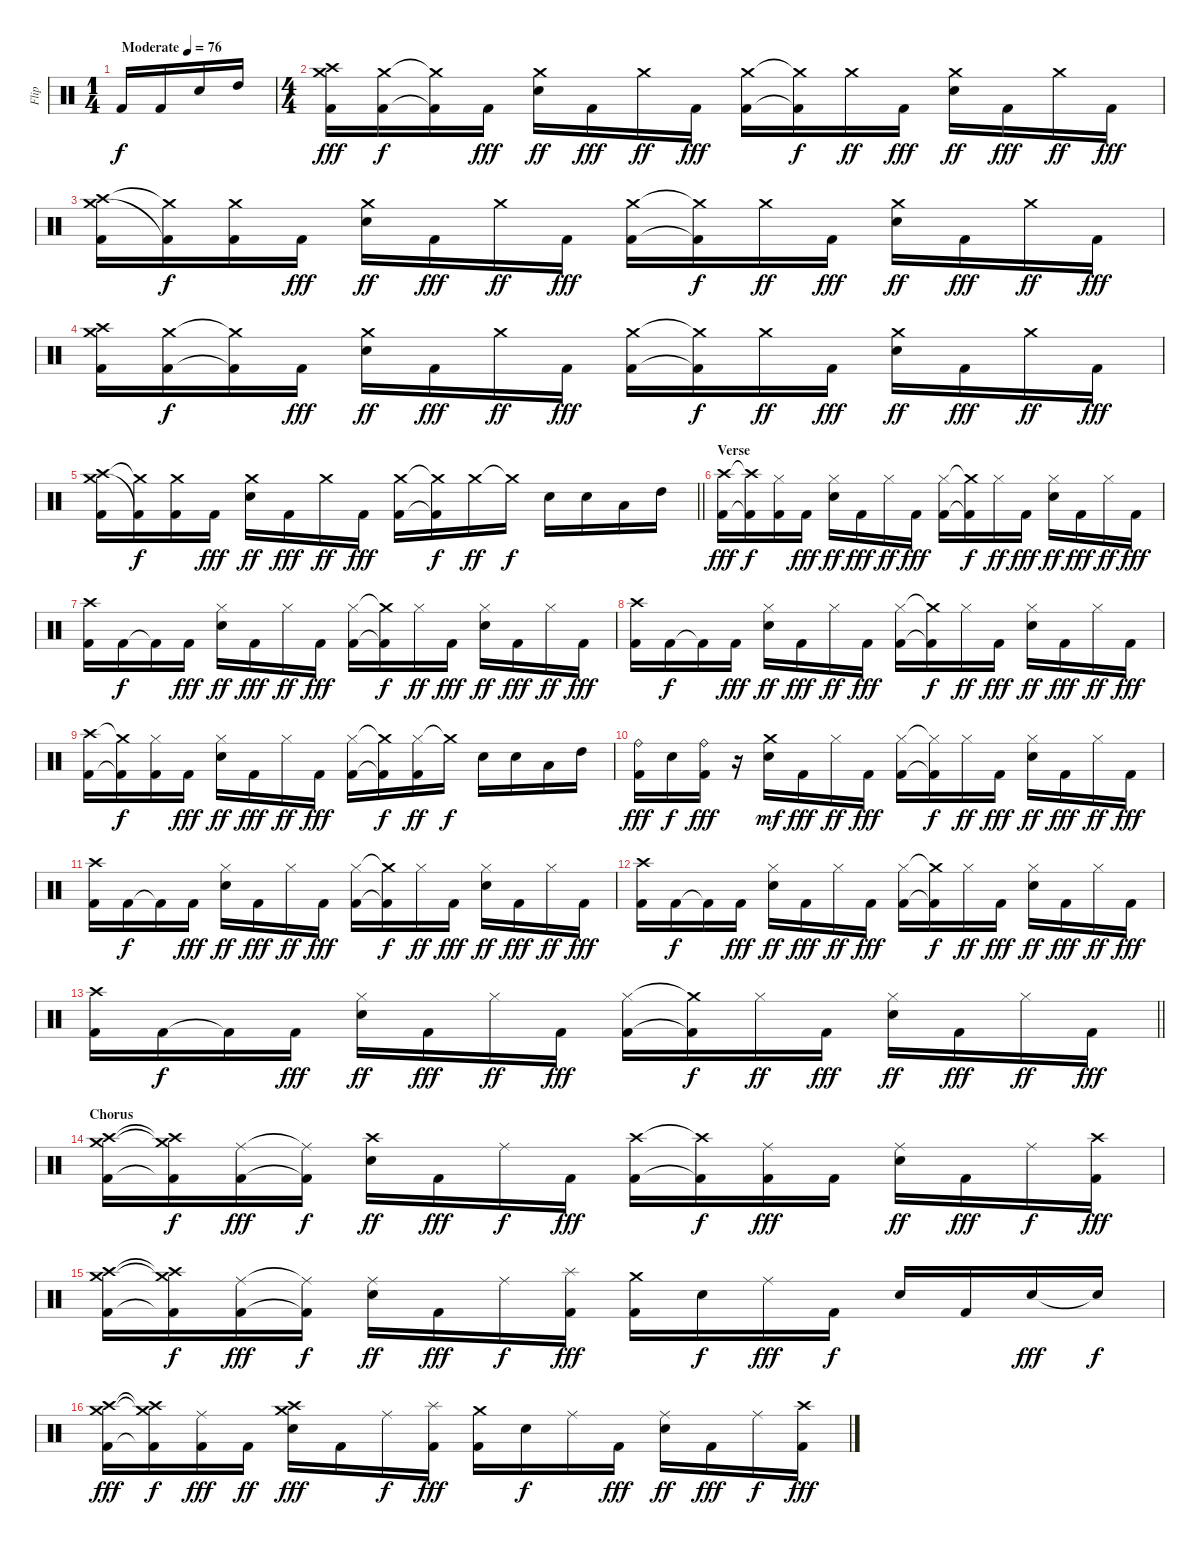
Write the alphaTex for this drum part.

\track ("Flip" "Flip") {instrument percussion}
\staff {score}
\articulation defaults
\ts (1 4)
\tempo (76 "Moderate")
\clef neutral
\ks c "Kick (hit) 2".16{dy f} "Kick (hit) 2".16 "Snare (hit) 2".16 "High Tom (hit)".16
|
\ts (4 4)
("Crash high (hit)" "Crash medium (hit)" "Kick (hit) 2").16{dy fff} ("Crash medium (hit)" "Kick (hit) 2").16{dy f} ("Crash medium (hit)"{t} "Kick (hit) 2"{t}).16 "Kick (hit) 2".16{dy fff} ("Crash medium (hit)" "Snare (hit) 2").16{dy ff} "Kick (hit) 2".16{dy fff} "Crash medium (hit)".16{dy ff} "Kick (hit) 2".16{dy fff} ("Crash medium (hit)" "Kick (hit) 2").16 ("Crash medium (hit)"{t} "Kick (hit) 2"{t}).16{dy f} "Crash medium (hit)".16{dy ff} "Kick (hit) 2".16{dy fff} ("Crash medium (hit)" "Snare (hit) 2").16{dy ff} "Kick (hit) 2".16{dy fff} "Crash medium (hit)".16{dy ff} "Kick (hit) 2".16{dy fff} |
("Crash high (hit)" "Crash medium (hit)" "Kick (hit) 2").16 ("Crash medium (hit)"{t} "Kick (hit) 2"{t}).16{dy f} ("Crash medium (hit)" "Kick (hit) 2").16 "Kick (hit) 2".16{dy fff} ("Crash medium (hit)" "Snare (hit) 2").16{dy ff} "Kick (hit) 2".16{dy fff} "Crash medium (hit)".16{dy ff} "Kick (hit) 2".16{dy fff} ("Crash medium (hit)" "Kick (hit) 2").16 ("Crash medium (hit)"{t} "Kick (hit) 2"{t}).16{dy f} "Crash medium (hit)".16{dy ff} "Kick (hit) 2".16{dy fff} ("Crash medium (hit)" "Snare (hit) 2").16{dy ff} "Kick (hit) 2".16{dy fff} "Crash medium (hit)".16{dy ff} "Kick (hit) 2".16{dy fff} |
("Crash high (hit)" "Crash medium (hit)" "Kick (hit) 2").16 ("Crash medium (hit)" "Kick (hit) 2").16{dy f} ("Crash medium (hit)"{t} "Kick (hit) 2"{t}).16 "Kick (hit) 2".16{dy fff} ("Crash medium (hit)" "Snare (hit) 2").16{dy ff} "Kick (hit) 2".16{dy fff} "Crash medium (hit)".16{dy ff} "Kick (hit) 2".16{dy fff} ("Crash medium (hit)" "Kick (hit) 2").16 ("Crash medium (hit)"{t} "Kick (hit) 2"{t}).16{dy f} "Crash medium (hit)".16{dy ff} "Kick (hit) 2".16{dy fff} ("Crash medium (hit)" "Snare (hit) 2").16{dy ff} "Kick (hit) 2".16{dy fff} "Crash medium (hit)".16{dy ff} "Kick (hit) 2".16{dy fff} |
\barLineRight lightlight
("Crash high (hit)" "Crash medium (hit)" "Kick (hit) 2").16 ("Crash medium (hit)"{t} "Kick (hit) 2"{t}).16{dy f} ("Crash medium (hit)" "Kick (hit) 2").16 "Kick (hit) 2".16{dy fff} ("Crash medium (hit)" "Snare (hit) 2").16{dy ff} "Kick (hit) 2".16{dy fff} "Crash medium (hit)".16{dy ff} "Kick (hit) 2".16{dy fff} ("Crash medium (hit)" "Kick (hit) 2").16 ("Crash medium (hit)"{t} "Kick (hit) 2"{t}).16{dy f} "Crash medium (hit)".16{dy ff} "Crash medium (hit)"{t}.16{dy f} "Snare (hit) 2".16 "Snare (hit) 2".16 "Low Tom (hit)".16 "High Tom (hit)".16 |
\section ("" "Verse")
("Crash high (hit)" "Kick (hit) 2").16{dy fff} ("Crash high (hit)"{t} "Kick (hit) 2"{t}).16{dy f} ("Hi-Hat (closed)" "Kick (hit) 2").16 "Kick (hit) 2".16{dy fff} ("Hi-Hat (closed)" "Snare (hit) 2").16{dy ff} "Kick (hit) 2".16{dy fff} "Hi-Hat (closed)".16{dy ff} "Kick (hit) 2".16{dy fff} ("Hi-Hat (closed)" "Kick (hit) 2").16 ("Crash medium (hit)"{t} "Kick (hit) 2"{t}).16{dy f} "Hi-Hat (closed)".16{dy ff} "Kick (hit) 2".16{dy fff} ("Hi-Hat (closed)" "Snare (hit) 2").16{dy ff} "Kick (hit) 2".16{dy fff} "Hi-Hat (closed)".16{dy ff} "Kick (hit) 2".16{dy fff} |
("Crash high (hit)" "Kick (hit) 2").16 "Kick (hit) 2".16{dy f} "Kick (hit) 2"{t}.16 "Kick (hit) 2".16{dy fff} ("Hi-Hat (closed)" "Snare (hit) 2").16{dy ff} "Kick (hit) 2".16{dy fff} "Hi-Hat (closed)".16{dy ff} "Kick (hit) 2".16{dy fff} ("Hi-Hat (closed)" "Kick (hit) 2").16 ("Crash medium (hit)"{t} "Kick (hit) 2"{t}).16{dy f} "Hi-Hat (closed)".16{dy ff} "Kick (hit) 2".16{dy fff} ("Hi-Hat (closed)" "Snare (hit) 2").16{dy ff} "Kick (hit) 2".16{dy fff} "Hi-Hat (closed)".16{dy ff} "Kick (hit) 2".16{dy fff} |
("Crash high (hit)" "Kick (hit) 2").16 "Kick (hit) 2".16{dy f} "Kick (hit) 2"{t}.16 "Kick (hit) 2".16{dy fff} ("Hi-Hat (closed)" "Snare (hit) 2").16{dy ff} "Kick (hit) 2".16{dy fff} "Hi-Hat (closed)".16{dy ff} "Kick (hit) 2".16{dy fff} ("Hi-Hat (closed)" "Kick (hit) 2").16 ("Crash medium (hit)"{t} "Kick (hit) 2"{t}).16{dy f} "Hi-Hat (closed)".16{dy ff} "Kick (hit) 2".16{dy fff} ("Hi-Hat (closed)" "Snare (hit) 2").16{dy ff} "Kick (hit) 2".16{dy fff} "Hi-Hat (closed)".16{dy ff} "Kick (hit) 2".16{dy fff} |
("Crash high (hit)" "Kick (hit) 2").16 ("Crash medium (hit)"{t} "Kick (hit) 2"{t}).16{dy f} ("Hi-Hat (closed)" "Kick (hit) 2").16 "Kick (hit) 2".16{dy fff} ("Hi-Hat (closed)" "Snare (hit) 2").16{dy ff} "Kick (hit) 2".16{dy fff} "Hi-Hat (closed)".16{dy ff} "Kick (hit) 2".16{dy fff} ("Hi-Hat (closed)" "Kick (hit) 2").16 ("Crash medium (hit)"{t} "Kick (hit) 2"{t}).16{dy f} ("Hi-Hat (closed)" "Kick (hit) 2").16{dy ff} "Crash medium (hit)"{t}.16{dy f} "Snare (hit) 2".16 "Snare (hit) 2".16 "Low Tom (hit)".16 "High Tom (hit)".16 |
("Ride (bell)" "Kick (hit) 2").16{dy fff} "Snare (hit) 2".16{dy f} ("Ride (bell)" "Kick (hit) 2").16{dy fff} r.16 ("Crash medium (hit)" "Snare (hit) 2").16{dy mf} "Kick (hit) 2".16{dy fff} "Hi-Hat (closed)".16{dy ff} "Kick (hit) 2".16{dy fff} ("Hi-Hat (closed)" "Kick (hit) 2").16 ("Hi-Hat (closed)"{t} "Kick (hit) 2"{t}).16{dy f} "Hi-Hat (closed)".16{dy ff} "Kick (hit) 2".16{dy fff} ("Hi-Hat (closed)" "Snare (hit) 2").16{dy ff} "Kick (hit) 2".16{dy fff} "Hi-Hat (closed)".16{dy ff} "Kick (hit) 2".16{dy fff} |
("Crash high (hit)" "Kick (hit) 2").16 "Kick (hit) 2".16{dy f} "Kick (hit) 2"{t}.16 "Kick (hit) 2".16{dy fff} ("Hi-Hat (closed)" "Snare (hit) 2").16{dy ff} "Kick (hit) 2".16{dy fff} "Hi-Hat (closed)".16{dy ff} "Kick (hit) 2".16{dy fff} ("Hi-Hat (closed)" "Kick (hit) 2").16 ("Crash medium (hit)"{t} "Kick (hit) 2"{t}).16{dy f} "Hi-Hat (closed)".16{dy ff} "Kick (hit) 2".16{dy fff} ("Hi-Hat (closed)" "Snare (hit) 2").16{dy ff} "Kick (hit) 2".16{dy fff} "Hi-Hat (closed)".16{dy ff} "Kick (hit) 2".16{dy fff} |
("Crash high (hit)" "Kick (hit) 2").16 "Kick (hit) 2".16{dy f} "Kick (hit) 2"{t}.16 "Kick (hit) 2".16{dy fff} ("Hi-Hat (closed)" "Snare (hit) 2").16{dy ff} "Kick (hit) 2".16{dy fff} "Hi-Hat (closed)".16{dy ff} "Kick (hit) 2".16{dy fff} ("Hi-Hat (closed)" "Kick (hit) 2").16 ("Crash medium (hit)"{t} "Kick (hit) 2"{t}).16{dy f} "Hi-Hat (closed)".16{dy ff} "Kick (hit) 2".16{dy fff} ("Hi-Hat (closed)" "Snare (hit) 2").16{dy ff} "Kick (hit) 2".16{dy fff} "Hi-Hat (closed)".16{dy ff} "Kick (hit) 2".16{dy fff} |
\barLineRight lightlight
("Crash high (hit)" "Kick (hit) 2").16 "Kick (hit) 2".16{dy f} "Kick (hit) 2"{t}.16 "Kick (hit) 2".16{dy fff} ("Hi-Hat (closed)" "Snare (hit) 2").16{dy ff} "Kick (hit) 2".16{dy fff} "Hi-Hat (closed)".16{dy ff} "Kick (hit) 2".16{dy fff} ("Hi-Hat (closed)" "Kick (hit) 2").16 ("Crash medium (hit)"{t} "Kick (hit) 2"{t}).16{dy f} "Hi-Hat (closed)".16{dy ff} "Kick (hit) 2".16{dy fff} ("Hi-Hat (closed)" "Snare (hit) 2").16{dy ff} "Kick (hit) 2".16{dy fff} "Hi-Hat (closed)".16{dy ff} "Kick (hit) 2".16{dy fff} |
\section ("" "Chorus")
("Crash medium (hit)" "Crash high (hit)" "Kick (hit) 2").16 ("Crash medium (hit)"{t} "Crash high (hit)"{t} "Kick (hit) 2"{t}).16{dy f} ("Ride (middle)" "Kick (hit) 2").16{dy fff} ("Ride (middle)"{t} "Kick (hit) 2"{t}).16{dy f} ("Crash high (hit)" "Snare (hit) 2").16{dy ff} "Kick (hit) 2".16{dy fff} "Ride (middle)".16{dy f} "Kick (hit) 2".16{dy fff} ("Crash high (hit)" "Kick (hit) 2").16 ("Crash high (hit)"{t} "Kick (hit) 2"{t}).16{dy f} ("Ride (middle)" "Kick (hit) 2").16{dy fff} "Kick (hit) 2".16 ("Ride (middle)" "Snare (hit) 2").16{dy ff} "Kick (hit) 2".16{dy fff} "Ride (middle)".16{dy f} ("Crash high (hit)" "Kick (hit) 2").16{dy fff} |
("Crash medium (hit)" "Crash high (hit)" "Kick (hit) 2").16 ("Crash medium (hit)"{t} "Crash high (hit)"{t} "Kick (hit) 2"{t}).16{dy f} ("Ride (middle)" "Kick (hit) 2").16{dy fff} ("Ride (middle)"{t} "Kick (hit) 2"{t}).16{dy f} ("Ride (middle)" "Snare (hit) 2").16{dy ff} "Kick (hit) 2".16{dy fff} "Ride (middle)".16{dy f} ("Splash (hit)" "Kick (hit) 2").16{dy fff} ("Crash medium (hit)" "Kick (hit) 2").16 "Snare (hit) 2".16{dy f} "Ride (middle)".16{dy fff} "Kick (hit) 2".16{dy f} "Snare (hit) 2".16 "Kick (hit) 2".16 "Snare (hit) 2".16{dy fff} "Snare (hit) 2"{t}.16{dy f} |
("Crash medium (hit)" "Crash high (hit)" "Kick (hit) 2").16{dy fff} ("Crash medium (hit)"{t} "Crash high (hit)"{t} "Kick (hit) 2"{t}).16{dy f} ("Ride (middle)" "Kick (hit) 2").16{dy fff} "Kick (hit) 2".16{dy ff} ("Crash high (hit)" "Crash medium (hit)" "Snare (hit) 2").16{dy fff} "Kick (hit) 2".16 "Ride (middle)".16{dy f} ("Splash (hit)" "Kick (hit) 2").16{dy fff} ("Crash medium (hit)" "Kick (hit) 2").16 "Snare (hit) 2".16{dy f} "Ride (middle)".16 "Kick (hit) 2".16{dy fff} ("Ride (middle)" "Snare (hit) 2").16{dy ff} "Kick (hit) 2".16{dy fff} "Ride (middle)".16{dy f} ("Crash high (hit)" "Kick (hit) 2").16{dy fff}
